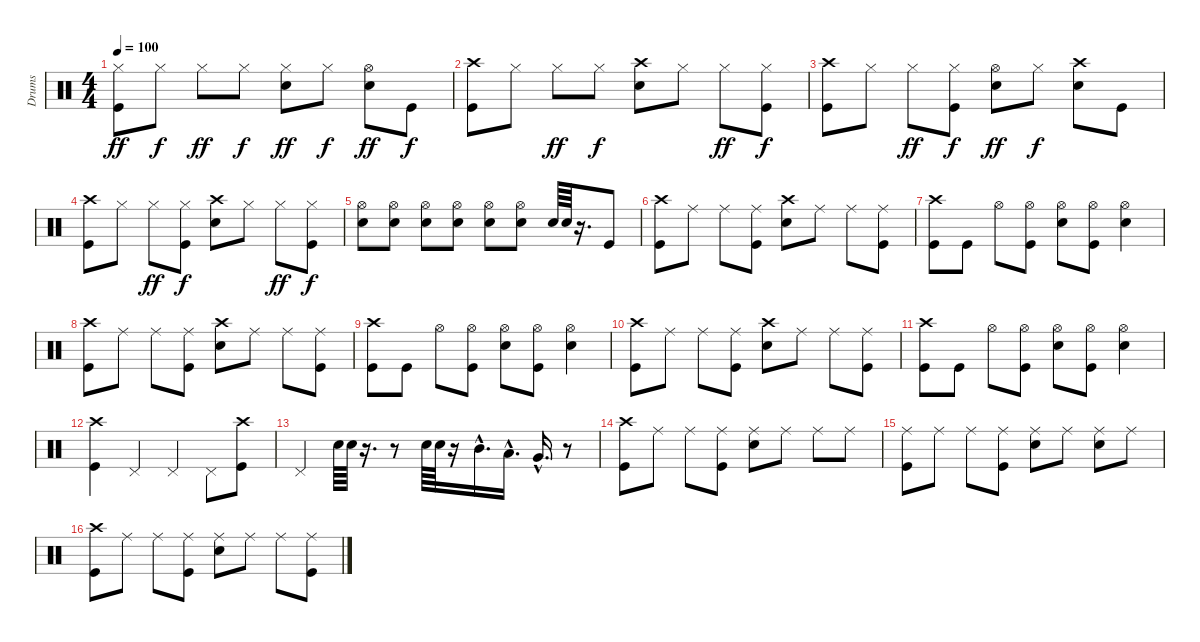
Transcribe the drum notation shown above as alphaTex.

\track ("Drums" "Drums") {instrument percussion}
\staff {score}
\articulation defaults
\ts (4 4)
\tempo 100
\clef neutral
\ks c
("Hi-Hat (closed)" "Kick (hit)").8{dy ff} "Hi-Hat (closed)".8{dy f} "Hi-Hat (closed)".8{dy ff} "Hi-Hat (closed)".8{dy f} ("Hi-Hat (closed)" "Snare (hit) 2").8{dy ff} "Hi-Hat (closed)".8{dy f} ("Hi-Hat (open)" "Snare (hit) 2").8{dy ff} "Kick (hit)".8{dy f} |
("Crash high (hit)" "Kick (hit)").8 "Hi-Hat (closed)".8 "Hi-Hat (closed)".8{dy ff} "Hi-Hat (closed)".8{dy f} ("Crash high (hit)" "Snare (hit) 2").8 "Hi-Hat (closed)".8 "Hi-Hat (closed)".8{dy ff} ("Hi-Hat (closed)" "Kick (hit)").8{dy f} |
("Crash high (hit)" "Kick (hit)").8 "Hi-Hat (closed)".8 "Hi-Hat (closed)".8{dy ff} ("Hi-Hat (closed)" "Kick (hit)").8{dy f} ("Hi-Hat (open)" "Snare (hit) 2").8{dy ff} "Hi-Hat (closed)".8{dy f} ("Crash high (hit)" "Snare (hit) 2").8 "Kick (hit)".8 |
("Crash high (hit)" "Kick (hit)").8 "Hi-Hat (closed)".8 "Hi-Hat (closed)".8{dy ff} ("Hi-Hat (closed)" "Kick (hit)").8{dy f} ("Crash high (hit)" "Snare (hit) 2").8 "Hi-Hat (closed)".8 "Hi-Hat (closed)".8{dy ff} ("Hi-Hat (closed)" "Kick (hit)").8{dy f} |
("Hi-Hat (open)" "Snare (hit) 2").8 ("Hi-Hat (open)" "Snare (hit) 2").8 ("Hi-Hat (open)" "Snare (hit) 2").8 ("Hi-Hat (open)" "Snare (hit) 2").8 ("Hi-Hat (open)" "Snare (hit) 2").8 ("Hi-Hat (open)" "Snare (hit) 2").8 "Snare (hit) 2".64 "Snare (hit) 2".64 r.16{d} "Kick (hit)".8 |
("Crash high (hit)" "Kick (hit)").8 "Ride (middle)".8 "Ride (middle)".8 ("Ride (middle)" "Kick (hit)").8 ("Crash high (hit)" "Snare (hit) 2").8 "Ride (middle)".8 "Ride (middle)".8 ("Ride (middle)" "Kick (hit)").8 |
("Crash high (hit)" "Kick (hit)").8 "Kick (hit)".8 "Hi-Hat (open)".8 ("Hi-Hat (open)" "Kick (hit)").8 ("Hi-Hat (open)" "Snare (hit) 2").8 ("Hi-Hat (open)" "Kick (hit)").8 ("Hi-Hat (open)" "Snare (hit) 2").4 |
("Crash high (hit)" "Kick (hit)").8 "Ride (middle)".8 "Ride (middle)".8 ("Ride (middle)" "Kick (hit)").8 ("Crash high (hit)" "Snare (hit) 2").8 "Ride (middle)".8 "Ride (middle)".8 ("Ride (middle)" "Kick (hit)").8 |
("Crash high (hit)" "Kick (hit)").8 "Kick (hit)".8 "Hi-Hat (open)".8 ("Hi-Hat (open)" "Kick (hit)").8 ("Hi-Hat (open)" "Snare (hit) 2").8 ("Hi-Hat (open)" "Kick (hit)").8 ("Hi-Hat (open)" "Snare (hit) 2").4 |
("Crash high (hit)" "Kick (hit)").8 "Ride (middle)".8 "Ride (middle)".8 ("Ride (middle)" "Kick (hit)").8 ("Crash high (hit)" "Snare (hit) 2").8 "Ride (middle)".8 "Ride (middle)".8 ("Ride (middle)" "Kick (hit)").8 |
("Crash high (hit)" "Kick (hit)").8 "Kick (hit)".8 "Hi-Hat (open)".8 ("Hi-Hat (open)" "Kick (hit)").8 ("Hi-Hat (open)" "Snare (hit) 2").8 ("Hi-Hat (open)" "Kick (hit)").8 ("Hi-Hat (open)" "Snare (hit) 2").4 |
("Crash high (hit)" "Kick (hit)").4 "Pedal Hi-Hat (hit)".4 "Pedal Hi-Hat (hit)".4 "Pedal Hi-Hat (hit)".8 ("Crash high (hit)" "Kick (hit)").8 |
"Pedal Hi-Hat (hit)".4 "Snare (hit) 2".64 "Snare (hit) 2".64 r.16{d} r.8 "Snare (hit) 2".64 "Snare (hit) 2".64 r.16 "Mid Tom (hit)"{hac}.16{d} "Low Tom (hit)"{hac}.16{d} "Very Low Tom (hit)"{hac}.16{d} r.8 |
("Crash high (hit)" "Kick (hit)").8 "Ride (middle)".8 "Ride (middle)".8 ("Ride (middle)" "Kick (hit)").8 ("Ride (middle)" "Snare (hit) 2").8 "Ride (middle)".8 "Ride (middle)".8 "Ride (middle)".8 |
("Ride (middle)" "Kick (hit)").8 "Ride (middle)".8 "Ride (middle)".8 ("Ride (middle)" "Kick (hit)").8 ("Ride (middle)" "Snare (hit) 2").8 "Ride (middle)".8 ("Ride (middle)" "Snare (hit) 2").8 "Ride (middle)".8 |
("Crash high (hit)" "Kick (hit)").8 "Ride (middle)".8 "Ride (middle)".8 ("Ride (middle)" "Kick (hit)").8 ("Ride (middle)" "Snare (hit) 2").8 "Ride (middle)".8 "Ride (middle)".8 ("Ride (middle)" "Kick (hit)").8
